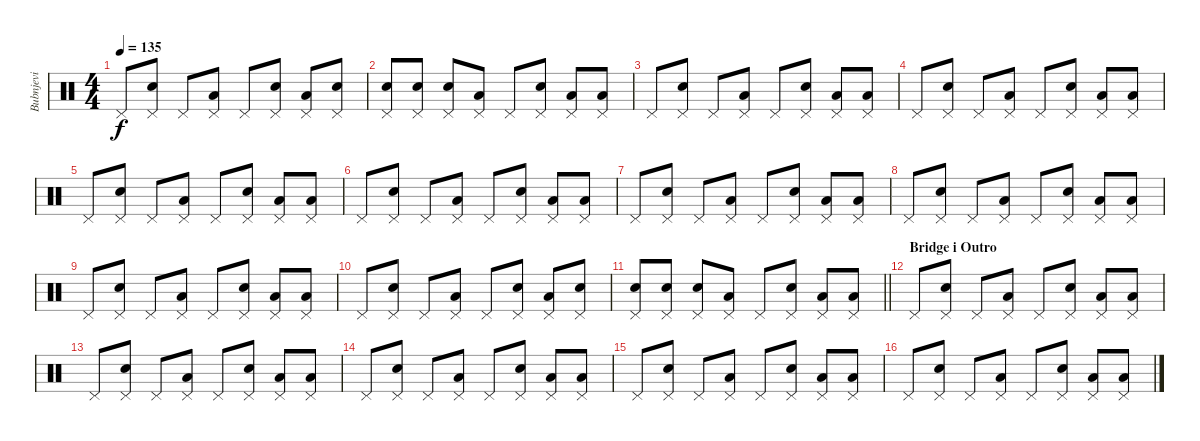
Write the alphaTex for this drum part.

\track ("Bubnjevi" "Bubnjevi") {instrument percussion}
\staff {score}
\articulation defaults
\ts (4 4)
\tempo 135
\clef neutral
\ks c "Pedal Hi-Hat (hit)".8{dy f}
("Pedal Hi-Hat (hit)" "Snare (hit) 2").8 "Pedal Hi-Hat (hit)".8 ("Pedal Hi-Hat (hit)" "Low Tom (hit)").8 "Pedal Hi-Hat (hit)".8 ("Pedal Hi-Hat (hit)" "Snare (hit) 2").8 ("Pedal Hi-Hat (hit)" "Low Tom (hit)").8 ("Pedal Hi-Hat (hit)" "Snare (hit) 2").8 |
("Pedal Hi-Hat (hit)" "Snare (hit) 2").8 ("Pedal Hi-Hat (hit)" "Snare (hit) 2").8 ("Pedal Hi-Hat (hit)" "Snare (hit) 2").8 ("Pedal Hi-Hat (hit)" "Low Tom (hit)").8 "Pedal Hi-Hat (hit)".8 ("Pedal Hi-Hat (hit)" "Snare (hit) 2").8 ("Pedal Hi-Hat (hit)" "Low Tom (hit)").8 ("Pedal Hi-Hat (hit)" "Low Tom (hit)").8 |
"Pedal Hi-Hat (hit)".8 ("Pedal Hi-Hat (hit)" "Snare (hit) 2").8 "Pedal Hi-Hat (hit)".8 ("Pedal Hi-Hat (hit)" "Low Tom (hit)").8 "Pedal Hi-Hat (hit)".8 ("Pedal Hi-Hat (hit)" "Snare (hit) 2").8 ("Pedal Hi-Hat (hit)" "Low Tom (hit)").8 ("Pedal Hi-Hat (hit)" "Low Tom (hit)").8 |
"Pedal Hi-Hat (hit)".8 ("Pedal Hi-Hat (hit)" "Snare (hit) 2").8 "Pedal Hi-Hat (hit)".8 ("Pedal Hi-Hat (hit)" "Low Tom (hit)").8 "Pedal Hi-Hat (hit)".8 ("Pedal Hi-Hat (hit)" "Snare (hit) 2").8 ("Pedal Hi-Hat (hit)" "Low Tom (hit)").8 ("Pedal Hi-Hat (hit)" "Low Tom (hit)").8 |
"Pedal Hi-Hat (hit)".8 ("Pedal Hi-Hat (hit)" "Snare (hit) 2").8 "Pedal Hi-Hat (hit)".8 ("Pedal Hi-Hat (hit)" "Low Tom (hit)").8 "Pedal Hi-Hat (hit)".8 ("Pedal Hi-Hat (hit)" "Snare (hit) 2").8 ("Pedal Hi-Hat (hit)" "Low Tom (hit)").8 ("Pedal Hi-Hat (hit)" "Low Tom (hit)").8 |
"Pedal Hi-Hat (hit)".8 ("Pedal Hi-Hat (hit)" "Snare (hit) 2").8 "Pedal Hi-Hat (hit)".8 ("Pedal Hi-Hat (hit)" "Low Tom (hit)").8 "Pedal Hi-Hat (hit)".8 ("Pedal Hi-Hat (hit)" "Snare (hit) 2").8 ("Pedal Hi-Hat (hit)" "Low Tom (hit)").8 ("Pedal Hi-Hat (hit)" "Low Tom (hit)").8 |
"Pedal Hi-Hat (hit)".8 ("Pedal Hi-Hat (hit)" "Snare (hit) 2").8 "Pedal Hi-Hat (hit)".8 ("Pedal Hi-Hat (hit)" "Low Tom (hit)").8 "Pedal Hi-Hat (hit)".8 ("Pedal Hi-Hat (hit)" "Snare (hit) 2").8 ("Pedal Hi-Hat (hit)" "Low Tom (hit)").8 ("Pedal Hi-Hat (hit)" "Low Tom (hit)").8 |
"Pedal Hi-Hat (hit)".8 ("Pedal Hi-Hat (hit)" "Snare (hit) 2").8 "Pedal Hi-Hat (hit)".8 ("Pedal Hi-Hat (hit)" "Low Tom (hit)").8 "Pedal Hi-Hat (hit)".8 ("Pedal Hi-Hat (hit)" "Snare (hit) 2").8 ("Pedal Hi-Hat (hit)" "Low Tom (hit)").8 ("Pedal Hi-Hat (hit)" "Low Tom (hit)").8 |
"Pedal Hi-Hat (hit)".8 ("Pedal Hi-Hat (hit)" "Snare (hit) 2").8 "Pedal Hi-Hat (hit)".8 ("Pedal Hi-Hat (hit)" "Low Tom (hit)").8 "Pedal Hi-Hat (hit)".8 ("Pedal Hi-Hat (hit)" "Snare (hit) 2").8 ("Pedal Hi-Hat (hit)" "Low Tom (hit)").8 ("Pedal Hi-Hat (hit)" "Low Tom (hit)").8 |
"Pedal Hi-Hat (hit)".8 ("Pedal Hi-Hat (hit)" "Snare (hit) 2").8 "Pedal Hi-Hat (hit)".8 ("Pedal Hi-Hat (hit)" "Low Tom (hit)").8 "Pedal Hi-Hat (hit)".8 ("Pedal Hi-Hat (hit)" "Snare (hit) 2").8 ("Pedal Hi-Hat (hit)" "Low Tom (hit)").8 ("Pedal Hi-Hat (hit)" "Snare (hit) 2").8 |
\barLineRight lightlight
("Pedal Hi-Hat (hit)" "Snare (hit) 2").8 ("Pedal Hi-Hat (hit)" "Snare (hit) 2").8 ("Pedal Hi-Hat (hit)" "Snare (hit) 2").8 ("Pedal Hi-Hat (hit)" "Low Tom (hit)").8 "Pedal Hi-Hat (hit)".8 ("Pedal Hi-Hat (hit)" "Snare (hit) 2").8 ("Pedal Hi-Hat (hit)" "Low Tom (hit)").8 ("Pedal Hi-Hat (hit)" "Low Tom (hit)").8 |
\section ("" "Bridge i Outro")
"Pedal Hi-Hat (hit)".8 ("Pedal Hi-Hat (hit)" "Snare (hit) 2").8 "Pedal Hi-Hat (hit)".8 ("Pedal Hi-Hat (hit)" "Low Tom (hit)").8 "Pedal Hi-Hat (hit)".8 ("Pedal Hi-Hat (hit)" "Snare (hit) 2").8 ("Pedal Hi-Hat (hit)" "Low Tom (hit)").8 ("Pedal Hi-Hat (hit)" "Low Tom (hit)").8 |
"Pedal Hi-Hat (hit)".8 ("Pedal Hi-Hat (hit)" "Snare (hit) 2").8 "Pedal Hi-Hat (hit)".8 ("Pedal Hi-Hat (hit)" "Low Tom (hit)").8 "Pedal Hi-Hat (hit)".8 ("Pedal Hi-Hat (hit)" "Snare (hit) 2").8 ("Pedal Hi-Hat (hit)" "Low Tom (hit)").8 ("Pedal Hi-Hat (hit)" "Low Tom (hit)").8 |
"Pedal Hi-Hat (hit)".8 ("Pedal Hi-Hat (hit)" "Snare (hit) 2").8 "Pedal Hi-Hat (hit)".8 ("Pedal Hi-Hat (hit)" "Low Tom (hit)").8 "Pedal Hi-Hat (hit)".8 ("Pedal Hi-Hat (hit)" "Snare (hit) 2").8 ("Pedal Hi-Hat (hit)" "Low Tom (hit)").8 ("Pedal Hi-Hat (hit)" "Low Tom (hit)").8 |
"Pedal Hi-Hat (hit)".8 ("Pedal Hi-Hat (hit)" "Snare (hit) 2").8 "Pedal Hi-Hat (hit)".8 ("Pedal Hi-Hat (hit)" "Low Tom (hit)").8 "Pedal Hi-Hat (hit)".8 ("Pedal Hi-Hat (hit)" "Snare (hit) 2").8 ("Pedal Hi-Hat (hit)" "Low Tom (hit)").8 ("Pedal Hi-Hat (hit)" "Low Tom (hit)").8 |
"Pedal Hi-Hat (hit)".8 ("Pedal Hi-Hat (hit)" "Snare (hit) 2").8 "Pedal Hi-Hat (hit)".8 ("Pedal Hi-Hat (hit)" "Low Tom (hit)").8 "Pedal Hi-Hat (hit)".8 ("Pedal Hi-Hat (hit)" "Snare (hit) 2").8 ("Pedal Hi-Hat (hit)" "Low Tom (hit)").8 ("Pedal Hi-Hat (hit)" "Low Tom (hit)").8
